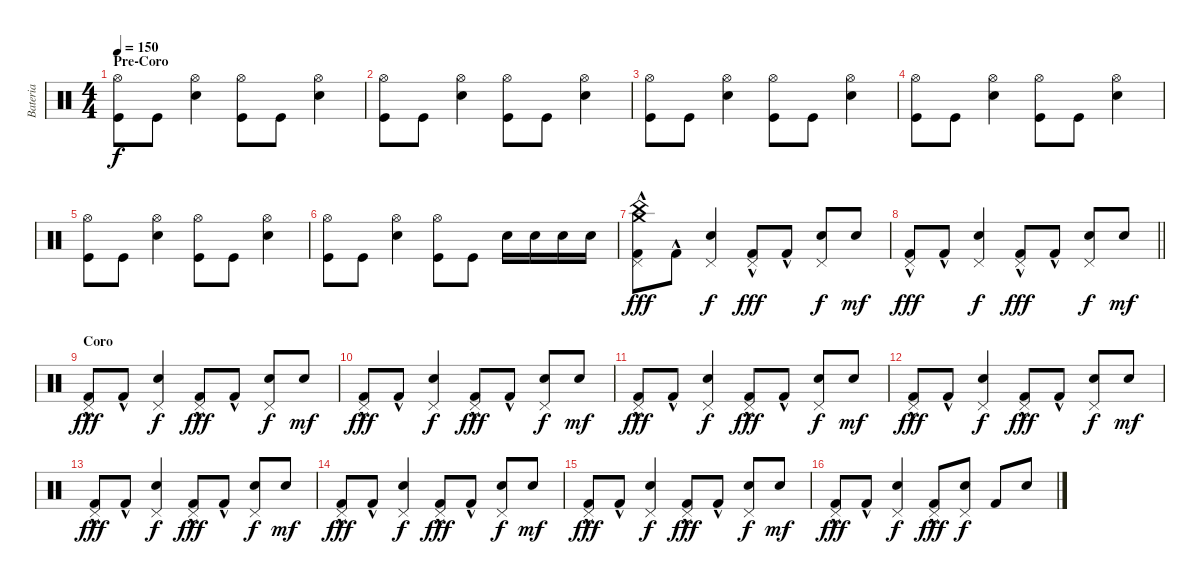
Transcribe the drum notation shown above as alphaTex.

\track ("Bateria" "Bateria") {instrument percussion}
\staff {score}
\articulation defaults
\ts (4 4)
\section ("" "Pre-Coro")
\tempo 150
\clef neutral
\ks c
("Hi-Hat (open)" "Kick (hit)").8{dy f} "Kick (hit)".8 ("Hi-Hat (open)" "Snare (hit) 2").4 ("Hi-Hat (open)" "Kick (hit)").8 "Kick (hit)".8 ("Hi-Hat (open)" "Snare (hit) 2").4 |
("Hi-Hat (open)" "Kick (hit)").8 "Kick (hit)".8 ("Hi-Hat (open)" "Snare (hit) 2").4 ("Hi-Hat (open)" "Kick (hit)").8 "Kick (hit)".8 ("Hi-Hat (open)" "Snare (hit) 2").4 |
("Hi-Hat (open)" "Kick (hit)").8 "Kick (hit)".8 ("Hi-Hat (open)" "Snare (hit) 2").4 ("Hi-Hat (open)" "Kick (hit)").8 "Kick (hit)".8 ("Hi-Hat (open)" "Snare (hit) 2").4 |
("Hi-Hat (open)" "Kick (hit)").8 "Kick (hit)".8 ("Hi-Hat (open)" "Snare (hit) 2").4 ("Hi-Hat (open)" "Kick (hit)").8 "Kick (hit)".8 ("Hi-Hat (open)" "Snare (hit) 2").4 |
("Hi-Hat (open)" "Kick (hit)").8 "Kick (hit)".8 ("Hi-Hat (open)" "Snare (hit) 2").4 ("Hi-Hat (open)" "Kick (hit)").8 "Kick (hit)".8 ("Hi-Hat (open)" "Snare (hit) 2").4 |
("Hi-Hat (open)" "Kick (hit)").8 "Kick (hit)".8 ("Hi-Hat (open)" "Snare (hit) 2").4 ("Hi-Hat (open)" "Kick (hit)").8 "Kick (hit)".8 "Electric Snare (hit)".16 "Electric Snare (hit)".16 "Electric Snare (hit)".16 "Electric Snare (hit)".16 |
("Crash medium (hit)" "Pedal Hi-Hat (hit)" "China (hit)" "Kick (hit) 2"{hac}).8{dy fff} "Kick (hit) 2"{hac}.8 ("Pedal Hi-Hat (hit)" "Electric Snare (hit)").4{dy f} ("Pedal Hi-Hat (hit)" "Kick (hit) 2"{hac}).8{dy fff} "Kick (hit) 2"{hac}.8 ("Pedal Hi-Hat (hit)" "Electric Snare (hit)").8{dy f} "Electric Snare (hit)".8{dy mf} |
\barLineRight lightlight
("Pedal Hi-Hat (hit)" "Kick (hit) 2"{hac}).8{dy fff} "Kick (hit) 2"{hac}.8 ("Pedal Hi-Hat (hit)" "Electric Snare (hit)").4{dy f} ("Pedal Hi-Hat (hit)" "Kick (hit) 2"{hac}).8{dy fff} "Kick (hit) 2"{hac}.8 ("Pedal Hi-Hat (hit)" "Electric Snare (hit)").8{dy f} "Electric Snare (hit)".8{dy mf} |
\section ("" "Coro")
("Pedal Hi-Hat (hit)" "Kick (hit) 2"{hac}).8{dy fff} "Kick (hit) 2"{hac}.8 ("Pedal Hi-Hat (hit)" "Electric Snare (hit)").4{dy f} ("Pedal Hi-Hat (hit)" "Kick (hit) 2"{hac}).8{dy fff} "Kick (hit) 2"{hac}.8 ("Pedal Hi-Hat (hit)" "Electric Snare (hit)").8{dy f} "Electric Snare (hit)".8{dy mf} |
("Pedal Hi-Hat (hit)" "Kick (hit) 2"{hac}).8{dy fff} "Kick (hit) 2"{hac}.8 ("Pedal Hi-Hat (hit)" "Electric Snare (hit)").4{dy f} ("Pedal Hi-Hat (hit)" "Kick (hit) 2"{hac}).8{dy fff} "Kick (hit) 2"{hac}.8 ("Pedal Hi-Hat (hit)" "Electric Snare (hit)").8{dy f} "Electric Snare (hit)".8{dy mf} |
("Pedal Hi-Hat (hit)" "Kick (hit) 2"{hac}).8{dy fff} "Kick (hit) 2"{hac}.8 ("Pedal Hi-Hat (hit)" "Electric Snare (hit)").4{dy f} ("Pedal Hi-Hat (hit)" "Kick (hit) 2"{hac}).8{dy fff} "Kick (hit) 2"{hac}.8 ("Pedal Hi-Hat (hit)" "Electric Snare (hit)").8{dy f} "Electric Snare (hit)".8{dy mf} |
("Pedal Hi-Hat (hit)" "Kick (hit) 2"{hac}).8{dy fff} "Kick (hit) 2"{hac}.8 ("Pedal Hi-Hat (hit)" "Electric Snare (hit)").4{dy f} ("Pedal Hi-Hat (hit)" "Kick (hit) 2"{hac}).8{dy fff} "Kick (hit) 2"{hac}.8 ("Pedal Hi-Hat (hit)" "Electric Snare (hit)").8{dy f} "Electric Snare (hit)".8{dy mf} |
("Pedal Hi-Hat (hit)" "Kick (hit) 2"{hac}).8{dy fff} "Kick (hit) 2"{hac}.8 ("Pedal Hi-Hat (hit)" "Electric Snare (hit)").4{dy f} ("Pedal Hi-Hat (hit)" "Kick (hit) 2"{hac}).8{dy fff} "Kick (hit) 2"{hac}.8 ("Pedal Hi-Hat (hit)" "Electric Snare (hit)").8{dy f} "Electric Snare (hit)".8{dy mf} |
("Pedal Hi-Hat (hit)" "Kick (hit) 2"{hac}).8{dy fff} "Kick (hit) 2"{hac}.8 ("Pedal Hi-Hat (hit)" "Electric Snare (hit)").4{dy f} ("Pedal Hi-Hat (hit)" "Kick (hit) 2"{hac}).8{dy fff} "Kick (hit) 2"{hac}.8 ("Pedal Hi-Hat (hit)" "Electric Snare (hit)").8{dy f} "Electric Snare (hit)".8{dy mf} |
("Pedal Hi-Hat (hit)" "Kick (hit) 2"{hac}).8{dy fff} "Kick (hit) 2"{hac}.8 ("Pedal Hi-Hat (hit)" "Electric Snare (hit)").4{dy f} ("Pedal Hi-Hat (hit)" "Kick (hit) 2"{hac}).8{dy fff} "Kick (hit) 2"{hac}.8 ("Pedal Hi-Hat (hit)" "Electric Snare (hit)").8{dy f} "Electric Snare (hit)".8{dy mf} |
("Pedal Hi-Hat (hit)" "Kick (hit) 2"{hac}).8{dy fff} "Kick (hit) 2"{hac}.8 ("Pedal Hi-Hat (hit)" "Electric Snare (hit)").4{dy f} ("Pedal Hi-Hat (hit)" "Kick (hit) 2"{hac}).8{dy fff} ("Pedal Hi-Hat (hit)" "Electric Snare (hit)").8{dy f} "Kick (hit) 2".8 "Electric Snare (hit)".8
